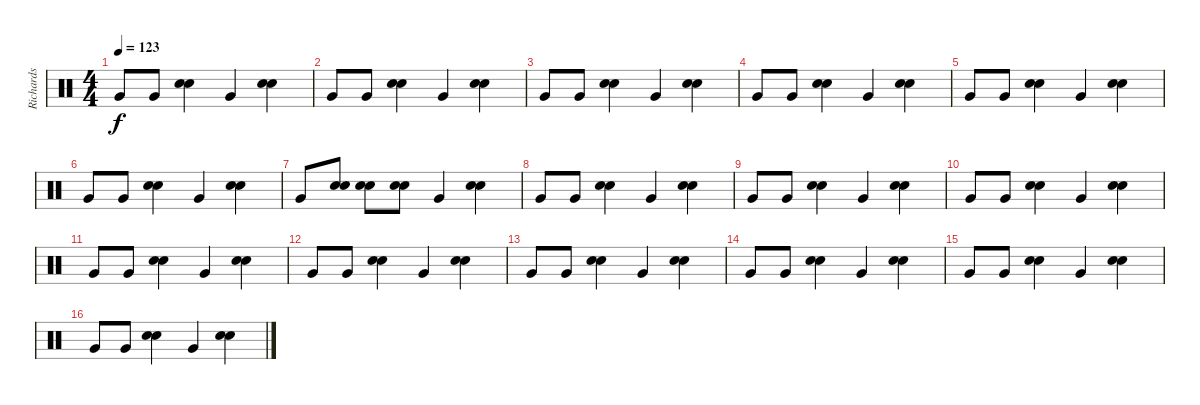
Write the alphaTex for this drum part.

\track ("Richards" "Richards") {instrument percussion}
\staff {score}
\articulation defaults
\ts (4 4)
\tempo 123
\clef neutral
\ks c "Very Low Tom (hit)".8{dy f} "Very Low Tom (hit)".8
("Snare (hit) 2" "Electric Snare (hit)").4 "Very Low Tom (hit)".4 ("Snare (hit) 2" "Electric Snare (hit)").4 |
"Very Low Tom (hit)".8 "Very Low Tom (hit)".8 ("Snare (hit) 2" "Electric Snare (hit)").4 "Very Low Tom (hit)".4 ("Snare (hit) 2" "Electric Snare (hit)").4 |
"Very Low Tom (hit)".8 "Very Low Tom (hit)".8 ("Snare (hit) 2" "Electric Snare (hit)").4 "Very Low Tom (hit)".4 ("Snare (hit) 2" "Electric Snare (hit)").4 |
"Very Low Tom (hit)".8 "Very Low Tom (hit)".8 ("Snare (hit) 2" "Electric Snare (hit)").4 "Very Low Tom (hit)".4 ("Snare (hit) 2" "Electric Snare (hit)").4 |
"Very Low Tom (hit)".8 "Very Low Tom (hit)".8 ("Snare (hit) 2" "Electric Snare (hit)").4 "Very Low Tom (hit)".4 ("Snare (hit) 2" "Electric Snare (hit)").4 |
"Very Low Tom (hit)".8 "Very Low Tom (hit)".8 ("Snare (hit) 2" "Electric Snare (hit)").4 "Very Low Tom (hit)".4 ("Snare (hit) 2" "Electric Snare (hit)").4 |
"Very Low Tom (hit)".8 ("Snare (hit) 2" "Electric Snare (hit)").8 ("Snare (hit) 2" "Electric Snare (hit)").8 ("Snare (hit) 2" "Electric Snare (hit)").8 "Very Low Tom (hit)".4 ("Snare (hit) 2" "Electric Snare (hit)").4 |
"Very Low Tom (hit)".8 "Very Low Tom (hit)".8 ("Snare (hit) 2" "Electric Snare (hit)").4 "Very Low Tom (hit)".4 ("Snare (hit) 2" "Electric Snare (hit)").4 |
"Very Low Tom (hit)".8 "Very Low Tom (hit)".8 ("Snare (hit) 2" "Electric Snare (hit)").4 "Very Low Tom (hit)".4 ("Snare (hit) 2" "Electric Snare (hit)").4 |
"Very Low Tom (hit)".8 "Very Low Tom (hit)".8 ("Snare (hit) 2" "Electric Snare (hit)").4 "Very Low Tom (hit)".4 ("Snare (hit) 2" "Electric Snare (hit)").4 |
"Very Low Tom (hit)".8 "Very Low Tom (hit)".8 ("Snare (hit) 2" "Electric Snare (hit)").4 "Very Low Tom (hit)".4 ("Snare (hit) 2" "Electric Snare (hit)").4 |
"Very Low Tom (hit)".8 "Very Low Tom (hit)".8 ("Snare (hit) 2" "Electric Snare (hit)").4 "Very Low Tom (hit)".4 ("Snare (hit) 2" "Electric Snare (hit)").4 |
"Very Low Tom (hit)".8 "Very Low Tom (hit)".8 ("Snare (hit) 2" "Electric Snare (hit)").4 "Very Low Tom (hit)".4 ("Snare (hit) 2" "Electric Snare (hit)").4 |
"Very Low Tom (hit)".8 "Very Low Tom (hit)".8 ("Snare (hit) 2" "Electric Snare (hit)").4 "Very Low Tom (hit)".4 ("Snare (hit) 2" "Electric Snare (hit)").4 |
"Very Low Tom (hit)".8 "Very Low Tom (hit)".8 ("Snare (hit) 2" "Electric Snare (hit)").4 "Very Low Tom (hit)".4 ("Snare (hit) 2" "Electric Snare (hit)").4 |
"Very Low Tom (hit)".8 "Very Low Tom (hit)".8 ("Snare (hit) 2" "Electric Snare (hit)").4 "Very Low Tom (hit)".4 ("Snare (hit) 2" "Electric Snare (hit)").4
